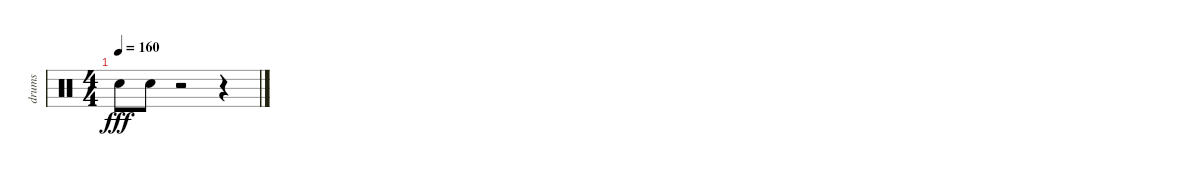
\track ("drums" "drums") {instrument percussion}
\staff {score}
\articulation defaults
\ts (4 4)
\tempo 160
\clef neutral
\ks c "Electric Snare (hit)".8{dy fff} "Electric Snare (hit)".8
r.2 r.4
